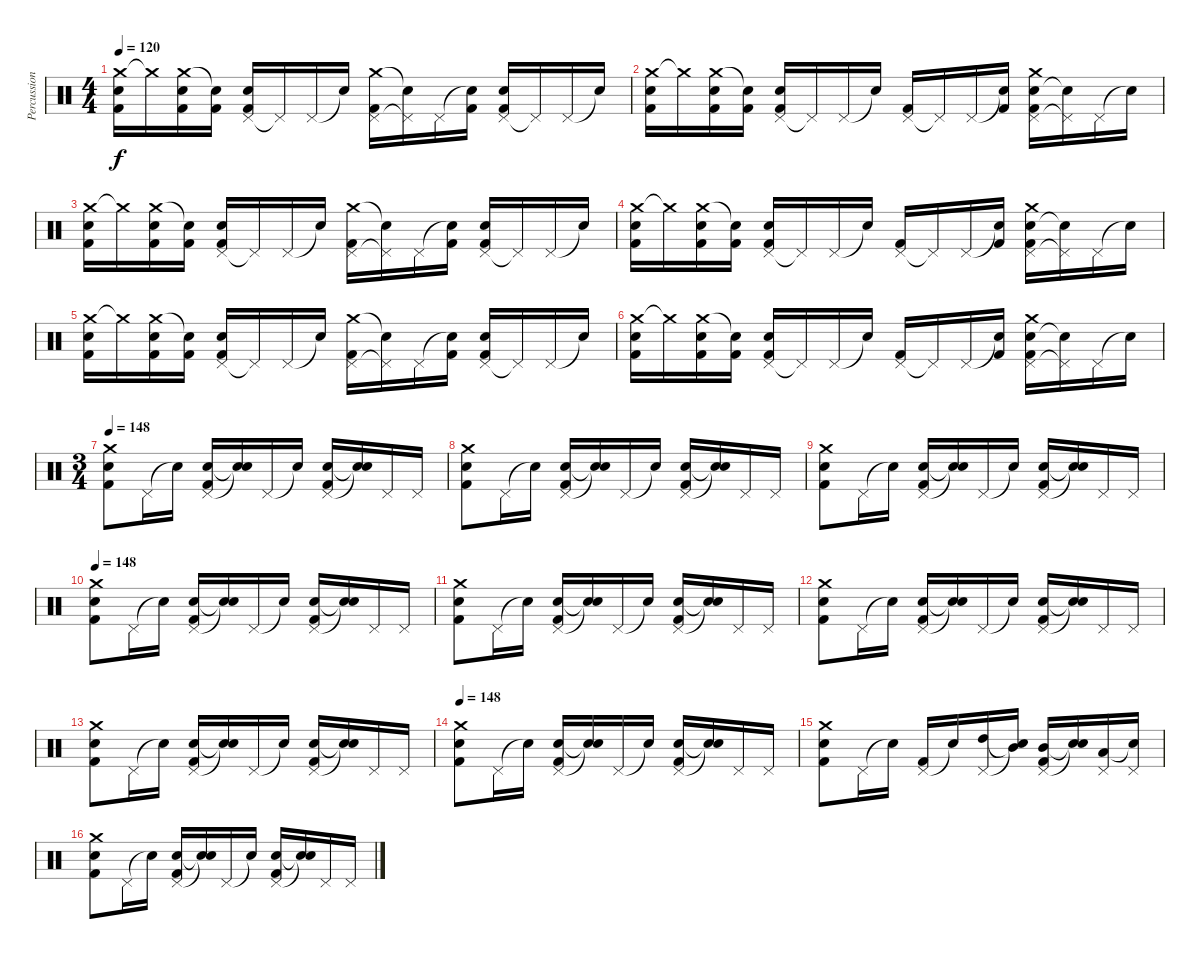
\track ("Percussion" "Percussion") {instrument percussion}
\staff {score}
\articulation defaults
\ts (4 4)
\tempo 120
\clef neutral
\ks c
("Crash medium (hit)" "Snare (hit) 2" "Kick (hit) 2").16{dy f} "Crash medium (hit)"{t}.16 ("Crash medium (hit)" "Snare (hit) 2" "Kick (hit) 2").16 ("Snare (hit)"{t} "Kick (hit) 2").16 ("Pedal Hi-Hat (hit)" "Snare (hit) 2" "Kick (hit) 2").16 "Pedal Hi-Hat (hit)"{t}.16 "Pedal Hi-Hat (hit)".16 "Snare (hit)"{t}.16 ("Pedal Hi-Hat (hit)" "Crash medium (hit)" "Kick (hit) 2").16 ("Pedal Hi-Hat (hit)"{t} "Snare (hit)"{t}).16 "Pedal Hi-Hat (hit)".16 ("Snare (hit)"{t} "Kick (hit) 2").16 ("Pedal Hi-Hat (hit)" "Snare (hit) 2" "Kick (hit) 2").16 "Pedal Hi-Hat (hit)"{t}.16 "Pedal Hi-Hat (hit)".16 "Snare (hit)"{t}.16 |
("Crash medium (hit)" "Snare (hit) 2" "Kick (hit) 2").16 "Crash medium (hit)"{t}.16 ("Crash medium (hit)" "Snare (hit) 2" "Kick (hit) 2").16 ("Snare (hit)"{t} "Kick (hit) 2").16 ("Pedal Hi-Hat (hit)" "Snare (hit) 2" "Kick (hit) 2").16 "Pedal Hi-Hat (hit)"{t}.16 "Pedal Hi-Hat (hit)".16 "Snare (hit)"{t}.16 ("Pedal Hi-Hat (hit)" "Kick (hit) 2").16 "Pedal Hi-Hat (hit)"{t}.16 "Pedal Hi-Hat (hit)".16 ("Snare (hit)"{t} "Kick (hit) 2").16 ("Pedal Hi-Hat (hit)" "Snare (hit) 2" "Crash medium (hit)" "Kick (hit) 2").16 ("Pedal Hi-Hat (hit)"{t} "Snare (hit)"{t}).16 "Pedal Hi-Hat (hit)".16 "Snare (hit)"{t}.16 |
("Crash medium (hit)" "Snare (hit) 2" "Kick (hit) 2").16 "Crash medium (hit)"{t}.16 ("Crash medium (hit)" "Snare (hit) 2" "Kick (hit) 2").16 ("Snare (hit)"{t} "Kick (hit) 2").16 ("Pedal Hi-Hat (hit)" "Snare (hit) 2" "Kick (hit) 2").16 "Pedal Hi-Hat (hit)"{t}.16 "Pedal Hi-Hat (hit)".16 "Snare (hit)"{t}.16 ("Pedal Hi-Hat (hit)" "Crash medium (hit)" "Kick (hit) 2").16 ("Pedal Hi-Hat (hit)"{t} "Snare (hit)"{t}).16 "Pedal Hi-Hat (hit)".16 ("Snare (hit)"{t} "Kick (hit) 2").16 ("Pedal Hi-Hat (hit)" "Snare (hit) 2" "Kick (hit) 2").16 "Pedal Hi-Hat (hit)"{t}.16 "Pedal Hi-Hat (hit)".16 "Snare (hit)"{t}.16 |
("Crash medium (hit)" "Snare (hit) 2" "Kick (hit) 2").16 "Crash medium (hit)"{t}.16 ("Crash medium (hit)" "Snare (hit) 2" "Kick (hit) 2").16 ("Snare (hit)"{t} "Kick (hit) 2").16 ("Pedal Hi-Hat (hit)" "Snare (hit) 2" "Kick (hit) 2").16 "Pedal Hi-Hat (hit)"{t}.16 "Pedal Hi-Hat (hit)".16 "Snare (hit)"{t}.16 ("Pedal Hi-Hat (hit)" "Kick (hit) 2").16 "Pedal Hi-Hat (hit)"{t}.16 "Pedal Hi-Hat (hit)".16 ("Snare (hit)"{t} "Kick (hit) 2").16 ("Pedal Hi-Hat (hit)" "Snare (hit) 2" "Crash medium (hit)" "Kick (hit) 2").16 ("Pedal Hi-Hat (hit)"{t} "Snare (hit)"{t}).16 "Pedal Hi-Hat (hit)".16 "Snare (hit)"{t}.16 |
("Crash medium (hit)" "Snare (hit) 2" "Kick (hit) 2").16 "Crash medium (hit)"{t}.16 ("Crash medium (hit)" "Snare (hit) 2" "Kick (hit) 2").16 ("Snare (hit)"{t} "Kick (hit) 2").16 ("Pedal Hi-Hat (hit)" "Snare (hit) 2" "Kick (hit) 2").16 "Pedal Hi-Hat (hit)"{t}.16 "Pedal Hi-Hat (hit)".16 "Snare (hit)"{t}.16 ("Pedal Hi-Hat (hit)" "Crash medium (hit)" "Kick (hit) 2").16 ("Pedal Hi-Hat (hit)"{t} "Snare (hit)"{t}).16 "Pedal Hi-Hat (hit)".16 ("Snare (hit)"{t} "Kick (hit) 2").16 ("Pedal Hi-Hat (hit)" "Snare (hit) 2" "Kick (hit) 2").16 "Pedal Hi-Hat (hit)"{t}.16 "Pedal Hi-Hat (hit)".16 "Snare (hit)"{t}.16 |
("Crash medium (hit)" "Snare (hit) 2" "Kick (hit) 2").16 "Crash medium (hit)"{t}.16 ("Crash medium (hit)" "Snare (hit) 2" "Kick (hit) 2").16 ("Snare (hit)"{t} "Kick (hit) 2").16 ("Pedal Hi-Hat (hit)" "Snare (hit) 2" "Kick (hit) 2").16 "Pedal Hi-Hat (hit)"{t}.16 "Pedal Hi-Hat (hit)".16 "Snare (hit)"{t}.16 ("Pedal Hi-Hat (hit)" "Kick (hit) 2").16 "Pedal Hi-Hat (hit)"{t}.16 "Pedal Hi-Hat (hit)".16 ("Snare (hit)"{t} "Kick (hit) 2").16 ("Pedal Hi-Hat (hit)" "Snare (hit) 2" "Crash medium (hit)" "Kick (hit) 2").16 ("Pedal Hi-Hat (hit)"{t} "Snare (hit)"{t}).16 "Pedal Hi-Hat (hit)".16 "Snare (hit)"{t}.16 |
\ts (3 4)
\tempo 148
("Crash medium (hit)" "Snare (hit) 2" "Kick (hit) 2").8 "Pedal Hi-Hat (hit)".16 "Snare (hit)"{t}.16 ("Pedal Hi-Hat (hit)" "Snare (hit) 2" "Kick (hit) 2").16 ("Snare (hit)"{t} "Snare (hit)"{t}).16 "Pedal Hi-Hat (hit)".16 "Snare (hit)"{t}.16 ("Pedal Hi-Hat (hit)" "Snare (hit) 2" "Kick (hit) 2").16 ("Snare (hit)"{t} "Snare (hit)"{t}).16 "Pedal Hi-Hat (hit)".16 "Pedal Hi-Hat (hit)".16 |
("Crash medium (hit)" "Snare (hit) 2" "Kick (hit) 2").8 "Pedal Hi-Hat (hit)".16 "Snare (hit)"{t}.16 ("Pedal Hi-Hat (hit)" "Snare (hit) 2" "Kick (hit) 2").16 ("Snare (hit)"{t} "Snare (hit)"{t}).16 "Pedal Hi-Hat (hit)".16 "Snare (hit)"{t}.16 ("Pedal Hi-Hat (hit)" "Snare (hit) 2" "Kick (hit) 2").16 ("Snare (hit)"{t} "Snare (hit)"{t}).16 "Pedal Hi-Hat (hit)".16 "Pedal Hi-Hat (hit)".16 |
("Crash medium (hit)" "Snare (hit) 2" "Kick (hit) 2").8 "Pedal Hi-Hat (hit)".16 "Snare (hit)"{t}.16 ("Pedal Hi-Hat (hit)" "Snare (hit) 2" "Kick (hit) 2").16 ("Snare (hit)"{t} "Snare (hit)"{t}).16 "Pedal Hi-Hat (hit)".16 "Snare (hit)"{t}.16 ("Pedal Hi-Hat (hit)" "Snare (hit) 2" "Kick (hit) 2").16 ("Snare (hit)"{t} "Snare (hit)"{t}).16 "Pedal Hi-Hat (hit)".16 "Pedal Hi-Hat (hit)".16 |
\tempo 148
("Crash medium (hit)" "Snare (hit) 2" "Kick (hit) 2").8 "Pedal Hi-Hat (hit)".16 "Snare (hit)"{t}.16 ("Pedal Hi-Hat (hit)" "Snare (hit) 2" "Kick (hit) 2").16 ("Snare (hit)"{t} "Snare (hit)"{t}).16 "Pedal Hi-Hat (hit)".16 "Snare (hit)"{t}.16 ("Pedal Hi-Hat (hit)" "Snare (hit) 2" "Kick (hit) 2").16 ("Snare (hit)"{t} "Snare (hit)"{t}).16 "Pedal Hi-Hat (hit)".16 "Pedal Hi-Hat (hit)".16 |
("Crash medium (hit)" "Snare (hit) 2" "Kick (hit) 2").8 "Pedal Hi-Hat (hit)".16 "Snare (hit)"{t}.16 ("Pedal Hi-Hat (hit)" "Snare (hit) 2" "Kick (hit) 2").16 ("Snare (hit)"{t} "Snare (hit)"{t}).16 "Pedal Hi-Hat (hit)".16 "Snare (hit)"{t}.16 ("Pedal Hi-Hat (hit)" "Snare (hit) 2" "Kick (hit) 2").16 ("Snare (hit)"{t} "Snare (hit)"{t}).16 "Pedal Hi-Hat (hit)".16 "Pedal Hi-Hat (hit)".16 |
("Crash medium (hit)" "Snare (hit) 2" "Kick (hit) 2").8 "Pedal Hi-Hat (hit)".16 "Snare (hit)"{t}.16 ("Pedal Hi-Hat (hit)" "Snare (hit) 2" "Kick (hit) 2").16 ("Snare (hit)"{t} "Snare (hit)"{t}).16 "Pedal Hi-Hat (hit)".16 "Snare (hit)"{t}.16 ("Pedal Hi-Hat (hit)" "Snare (hit) 2" "Kick (hit) 2").16 ("Snare (hit)"{t} "Snare (hit)"{t}).16 "Pedal Hi-Hat (hit)".16 "Pedal Hi-Hat (hit)".16 |
("Crash medium (hit)" "Snare (hit) 2" "Kick (hit) 2").8 "Pedal Hi-Hat (hit)".16 "Snare (hit)"{t}.16 ("Pedal Hi-Hat (hit)" "Snare (hit) 2" "Kick (hit) 2").16 ("Snare (hit)"{t} "Snare (hit)"{t}).16 "Pedal Hi-Hat (hit)".16 "Snare (hit)"{t}.16 ("Pedal Hi-Hat (hit)" "Snare (hit) 2" "Kick (hit) 2").16 ("Snare (hit)"{t} "Snare (hit)"{t}).16 "Pedal Hi-Hat (hit)".16 "Pedal Hi-Hat (hit)".16 |
\tempo 148
("Crash medium (hit)" "Snare (hit) 2" "Kick (hit) 2").8 "Pedal Hi-Hat (hit)".16 "Snare (hit)"{t}.16 ("Pedal Hi-Hat (hit)" "Snare (hit) 2" "Kick (hit) 2").16 ("Snare (hit)"{t} "Snare (hit)"{t}).16 "Pedal Hi-Hat (hit)".16 "Snare (hit)"{t}.16 ("Pedal Hi-Hat (hit)" "Snare (hit) 2" "Kick (hit) 2").16 ("Snare (hit)"{t} "Snare (hit)"{t}).16 "Pedal Hi-Hat (hit)".16 "Pedal Hi-Hat (hit)".16 |
("Crash medium (hit)" "Snare (hit) 2" "Kick (hit) 2").8 "Pedal Hi-Hat (hit)".16 "Snare (hit)"{t}.16 ("Pedal Hi-Hat (hit)" "Kick (hit) 2").16 "Snare (hit)"{t}.16 ("Pedal Hi-Hat (hit)" "High Tom (hit)").16 ("Snare (hit)"{t} "Mid Tom (hit)"{t}).16 ("Pedal Hi-Hat (hit)" "Mid Tom (hit)" "Kick (hit) 2").16 ("Snare (hit)"{t} "Snare (hit)"{t}).16 ("Pedal Hi-Hat (hit)" "Low Tom (hit)").16 ("Pedal Hi-Hat (hit)" "Snare (hit)"{t}).16 |
("Crash medium (hit)" "Snare (hit) 2" "Kick (hit) 2").8 "Pedal Hi-Hat (hit)".16 "Snare (hit)"{t}.16 ("Pedal Hi-Hat (hit)" "Snare (hit) 2" "Kick (hit) 2").16 ("Snare (hit)"{t} "Snare (hit)"{t}).16 "Pedal Hi-Hat (hit)".16 "Snare (hit)"{t}.16 ("Pedal Hi-Hat (hit)" "Snare (hit) 2" "Kick (hit) 2").16 ("Snare (hit)"{t} "Snare (hit)"{t}).16 "Pedal Hi-Hat (hit)".16 "Pedal Hi-Hat (hit)".16
